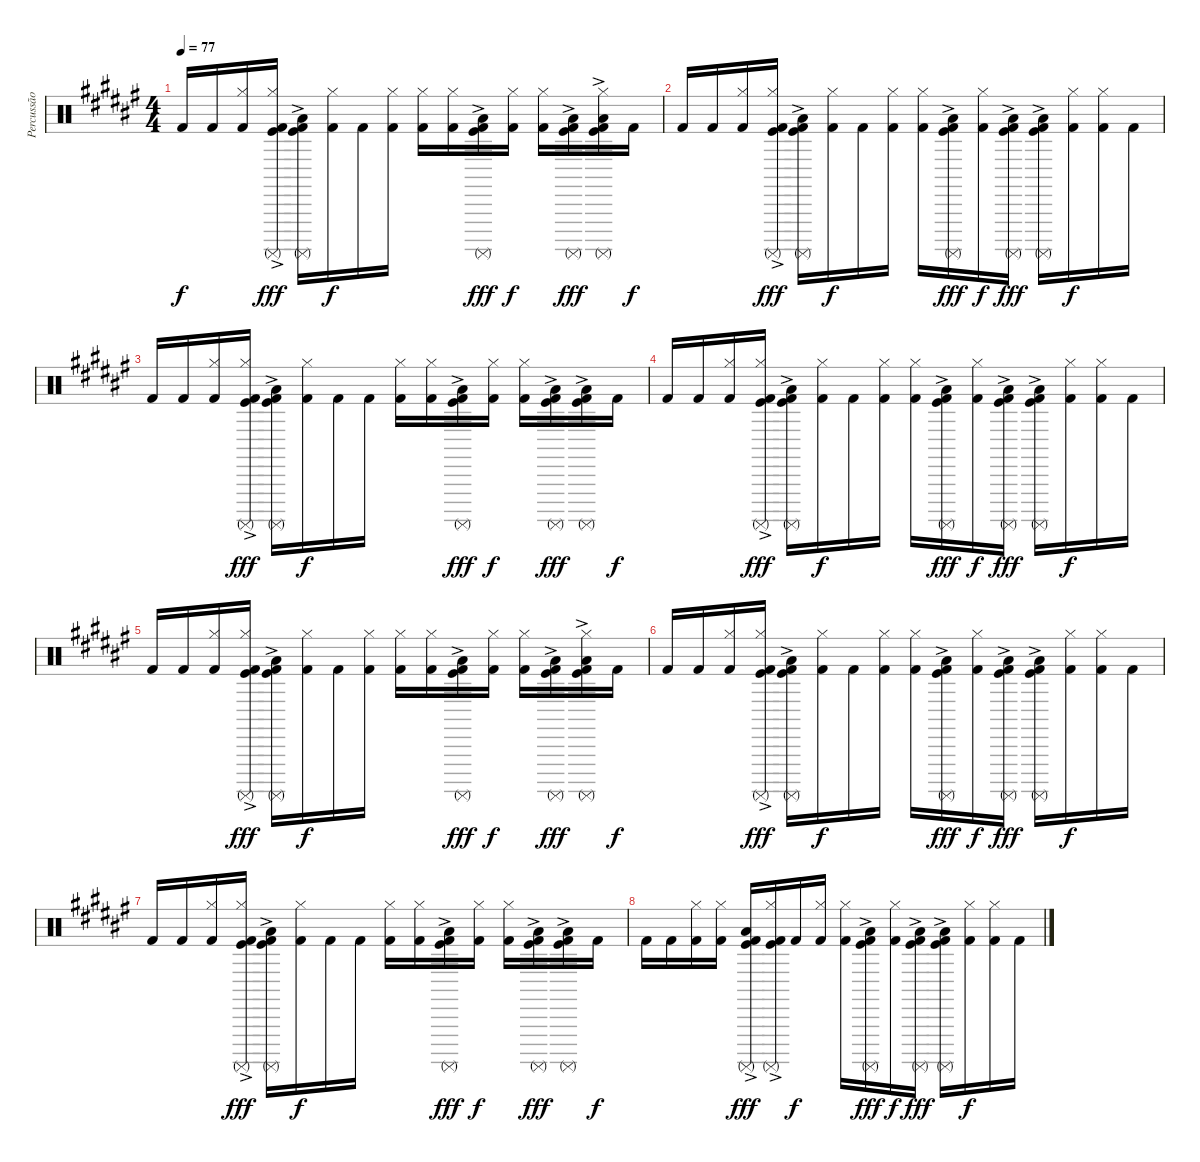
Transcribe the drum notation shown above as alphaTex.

\track ("Percussão" "Percussão") {instrument percussion}
\staff {score}
\articulation defaults
\ts (4 4)
\tempo 77
\clef neutral
\ks d#minor "Kick (hit) 2".16{dy f} "Kick (hit) 2".16
("Kick (hit) 2" "Hi-Hat (closed)").16 ("Kick (hit)"{ac} "Kick (hit) 2" "Hi-Hat (closed)" "Surdo (mute)").16{dy fff} ("Kick (hit)"{ac} "Kick (hit) 2" "Low Floor Tom (hit)" "Surdo (mute)").16 ("Kick (hit) 2" "Hi-Hat (closed)").16{dy f} "Kick (hit) 2".16 ("Kick (hit) 2" "Hi-Hat (closed)").16 ("Kick (hit) 2" "Hi-Hat (closed)").16 ("Kick (hit) 2" "Hi-Hat (closed)").16 ("Kick (hit)" "Kick (hit) 2"{ac} "Low Floor Tom (hit)" "Surdo (mute)").16{dy fff} ("Kick (hit) 2" "Hi-Hat (closed)").16{dy f} ("Kick (hit) 2" "Hi-Hat (closed)").16 ("Kick (hit)" "Kick (hit) 2"{ac} "Low Floor Tom (hit)" "Surdo (mute)").16{dy fff} ("Kick (hit)" "Kick (hit) 2"{ac} "Hi-Hat (closed)" "Low Floor Tom (hit)" "Surdo (mute)").16 "Kick (hit) 2".16{dy f} |
"Kick (hit) 2".16 "Kick (hit) 2".16 ("Kick (hit) 2" "Hi-Hat (closed)").16 ("Kick (hit)"{ac} "Kick (hit) 2" "Hi-Hat (closed)" "Surdo (mute)").16{dy fff} ("Kick (hit)"{ac} "Kick (hit) 2" "Low Floor Tom (hit)" "Surdo (mute)").16 ("Kick (hit) 2" "Hi-Hat (closed)").16{dy f} "Kick (hit) 2".16 ("Kick (hit) 2" "Hi-Hat (closed)").16 ("Kick (hit) 2" "Hi-Hat (closed)").16 ("Kick (hit)" "Kick (hit) 2"{ac} "Low Floor Tom (hit)" "Surdo (mute)").16{dy fff} ("Kick (hit) 2" "Hi-Hat (closed)").16{dy f} ("Kick (hit)" "Kick (hit) 2"{ac} "Low Floor Tom (hit)" "Surdo (mute)").16{dy fff} ("Kick (hit)" "Kick (hit) 2"{ac} "Low Floor Tom (hit)" "Surdo (mute)").16 ("Kick (hit) 2" "Hi-Hat (closed)").16{dy f} ("Kick (hit) 2" "Hi-Hat (closed)").16 "Kick (hit) 2".16 |
"Kick (hit) 2".16 "Kick (hit) 2".16 ("Kick (hit) 2" "Hi-Hat (closed)").16 ("Kick (hit)"{ac} "Kick (hit) 2" "Hi-Hat (closed)" "Surdo (mute)").16{dy fff} ("Kick (hit)"{ac} "Kick (hit) 2" "Low Floor Tom (hit)" "Surdo (mute)").16 ("Kick (hit) 2" "Hi-Hat (closed)").16{dy f} "Kick (hit) 2".16 "Kick (hit) 2".16 ("Kick (hit) 2" "Hi-Hat (closed)").16 ("Kick (hit) 2" "Hi-Hat (closed)").16 ("Kick (hit)" "Kick (hit) 2"{ac} "Low Floor Tom (hit)" "Surdo (mute)").16{dy fff} ("Kick (hit) 2" "Hi-Hat (closed)").16{dy f} ("Kick (hit) 2" "Hi-Hat (closed)").16 ("Kick (hit)" "Kick (hit) 2"{ac} "Low Floor Tom (hit)" "Surdo (mute)").16{dy fff} ("Kick (hit)" "Kick (hit) 2"{ac} "Low Floor Tom (hit)" "Surdo (mute)").16 "Kick (hit) 2".16{dy f} |
"Kick (hit) 2".16 "Kick (hit) 2".16 ("Kick (hit) 2" "Hi-Hat (closed)").16 ("Kick (hit)"{ac} "Kick (hit) 2" "Hi-Hat (closed)" "Surdo (mute)").16{dy fff} ("Kick (hit)"{ac} "Kick (hit) 2" "Low Floor Tom (hit)" "Surdo (mute)").16 ("Kick (hit) 2" "Hi-Hat (closed)").16{dy f} "Kick (hit) 2".16 ("Kick (hit) 2" "Hi-Hat (closed)").16 ("Kick (hit) 2" "Hi-Hat (closed)").16 ("Kick (hit)" "Kick (hit) 2"{ac} "Low Floor Tom (hit)" "Surdo (mute)").16{dy fff} ("Kick (hit) 2" "Hi-Hat (closed)").16{dy f} ("Kick (hit)" "Kick (hit) 2"{ac} "Low Floor Tom (hit)" "Surdo (mute)").16{dy fff} ("Kick (hit)" "Kick (hit) 2"{ac} "Low Floor Tom (hit)" "Surdo (mute)").16 ("Kick (hit) 2" "Hi-Hat (closed)").16{dy f} ("Kick (hit) 2" "Hi-Hat (closed)").16 "Kick (hit) 2".16 |
"Kick (hit) 2".16 "Kick (hit) 2".16 ("Kick (hit) 2" "Hi-Hat (closed)").16 ("Kick (hit)"{ac} "Kick (hit) 2" "Hi-Hat (closed)" "Surdo (mute)").16{dy fff} ("Kick (hit)"{ac} "Kick (hit) 2" "Low Floor Tom (hit)" "Surdo (mute)").16 ("Kick (hit) 2" "Hi-Hat (closed)").16{dy f} "Kick (hit) 2".16 ("Kick (hit) 2" "Hi-Hat (closed)").16 ("Kick (hit) 2" "Hi-Hat (closed)").16 ("Kick (hit) 2" "Hi-Hat (closed)").16 ("Kick (hit)" "Kick (hit) 2"{ac} "Low Floor Tom (hit)" "Surdo (mute)").16{dy fff} ("Kick (hit) 2" "Hi-Hat (closed)").16{dy f} ("Kick (hit) 2" "Hi-Hat (closed)").16 ("Kick (hit)" "Kick (hit) 2"{ac} "Low Floor Tom (hit)" "Surdo (mute)").16{dy fff} ("Kick (hit)" "Kick (hit) 2"{ac} "Hi-Hat (closed)" "Low Floor Tom (hit)" "Surdo (mute)").16 "Kick (hit) 2".16{dy f} |
"Kick (hit) 2".16 "Kick (hit) 2".16 ("Kick (hit) 2" "Hi-Hat (closed)").16 ("Kick (hit)"{ac} "Kick (hit) 2" "Hi-Hat (closed)" "Surdo (mute)").16{dy fff} ("Kick (hit)"{ac} "Kick (hit) 2" "Low Floor Tom (hit)" "Surdo (mute)").16 ("Kick (hit) 2" "Hi-Hat (closed)").16{dy f} "Kick (hit) 2".16 ("Kick (hit) 2" "Hi-Hat (closed)").16 ("Kick (hit) 2" "Hi-Hat (closed)").16 ("Kick (hit)" "Kick (hit) 2"{ac} "Low Floor Tom (hit)" "Surdo (mute)").16{dy fff} ("Kick (hit) 2" "Hi-Hat (closed)").16{dy f} ("Kick (hit)" "Kick (hit) 2"{ac} "Low Floor Tom (hit)" "Surdo (mute)").16{dy fff} ("Kick (hit)" "Kick (hit) 2"{ac} "Low Floor Tom (hit)" "Surdo (mute)").16 ("Kick (hit) 2" "Hi-Hat (closed)").16{dy f} ("Kick (hit) 2" "Hi-Hat (closed)").16 "Kick (hit) 2".16 |
"Kick (hit) 2".16 "Kick (hit) 2".16 ("Kick (hit) 2" "Hi-Hat (closed)").16 ("Kick (hit)"{ac} "Kick (hit) 2" "Hi-Hat (closed)" "Surdo (mute)").16{dy fff} ("Kick (hit)"{ac} "Kick (hit) 2" "Low Floor Tom (hit)" "Surdo (mute)").16 ("Kick (hit) 2" "Hi-Hat (closed)").16{dy f} "Kick (hit) 2".16 "Kick (hit) 2".16 ("Kick (hit) 2" "Hi-Hat (closed)").16 ("Kick (hit) 2" "Hi-Hat (closed)").16 ("Kick (hit)" "Kick (hit) 2"{ac} "Low Floor Tom (hit)" "Surdo (mute)").16{dy fff} ("Kick (hit) 2" "Hi-Hat (closed)").16{dy f} ("Kick (hit) 2" "Hi-Hat (closed)").16 ("Kick (hit)" "Kick (hit) 2"{ac} "Low Floor Tom (hit)" "Surdo (mute)").16{dy fff} ("Kick (hit)" "Kick (hit) 2"{ac} "Low Floor Tom (hit)" "Surdo (mute)").16 "Kick (hit) 2".16{dy f} |
"Kick (hit) 2".16 "Kick (hit) 2".16 ("Kick (hit) 2" "Hi-Hat (closed)").16 ("Kick (hit) 2" "Hi-Hat (closed)").16 ("Kick (hit)"{ac} "Kick (hit) 2" "Low Floor Tom (hit)" "Surdo (mute)").16{dy fff} ("Kick (hit)"{ac} "Kick (hit) 2" "Hi-Hat (closed)" "Surdo (mute)").16 "Kick (hit) 2".16{dy f} ("Kick (hit) 2" "Hi-Hat (closed)").16 ("Kick (hit) 2" "Hi-Hat (closed)").16 ("Kick (hit)" "Kick (hit) 2"{ac} "Low Floor Tom (hit)" "Surdo (mute)").16{dy fff} ("Kick (hit) 2" "Hi-Hat (closed)").16{dy f} ("Kick (hit)" "Kick (hit) 2"{ac} "Low Floor Tom (hit)" "Surdo (mute)").16{dy fff} ("Kick (hit)" "Kick (hit) 2"{ac} "Low Floor Tom (hit)" "Surdo (mute)").16 ("Kick (hit) 2" "Hi-Hat (closed)").16{dy f} ("Kick (hit) 2" "Hi-Hat (closed)").16 "Kick (hit) 2".16
